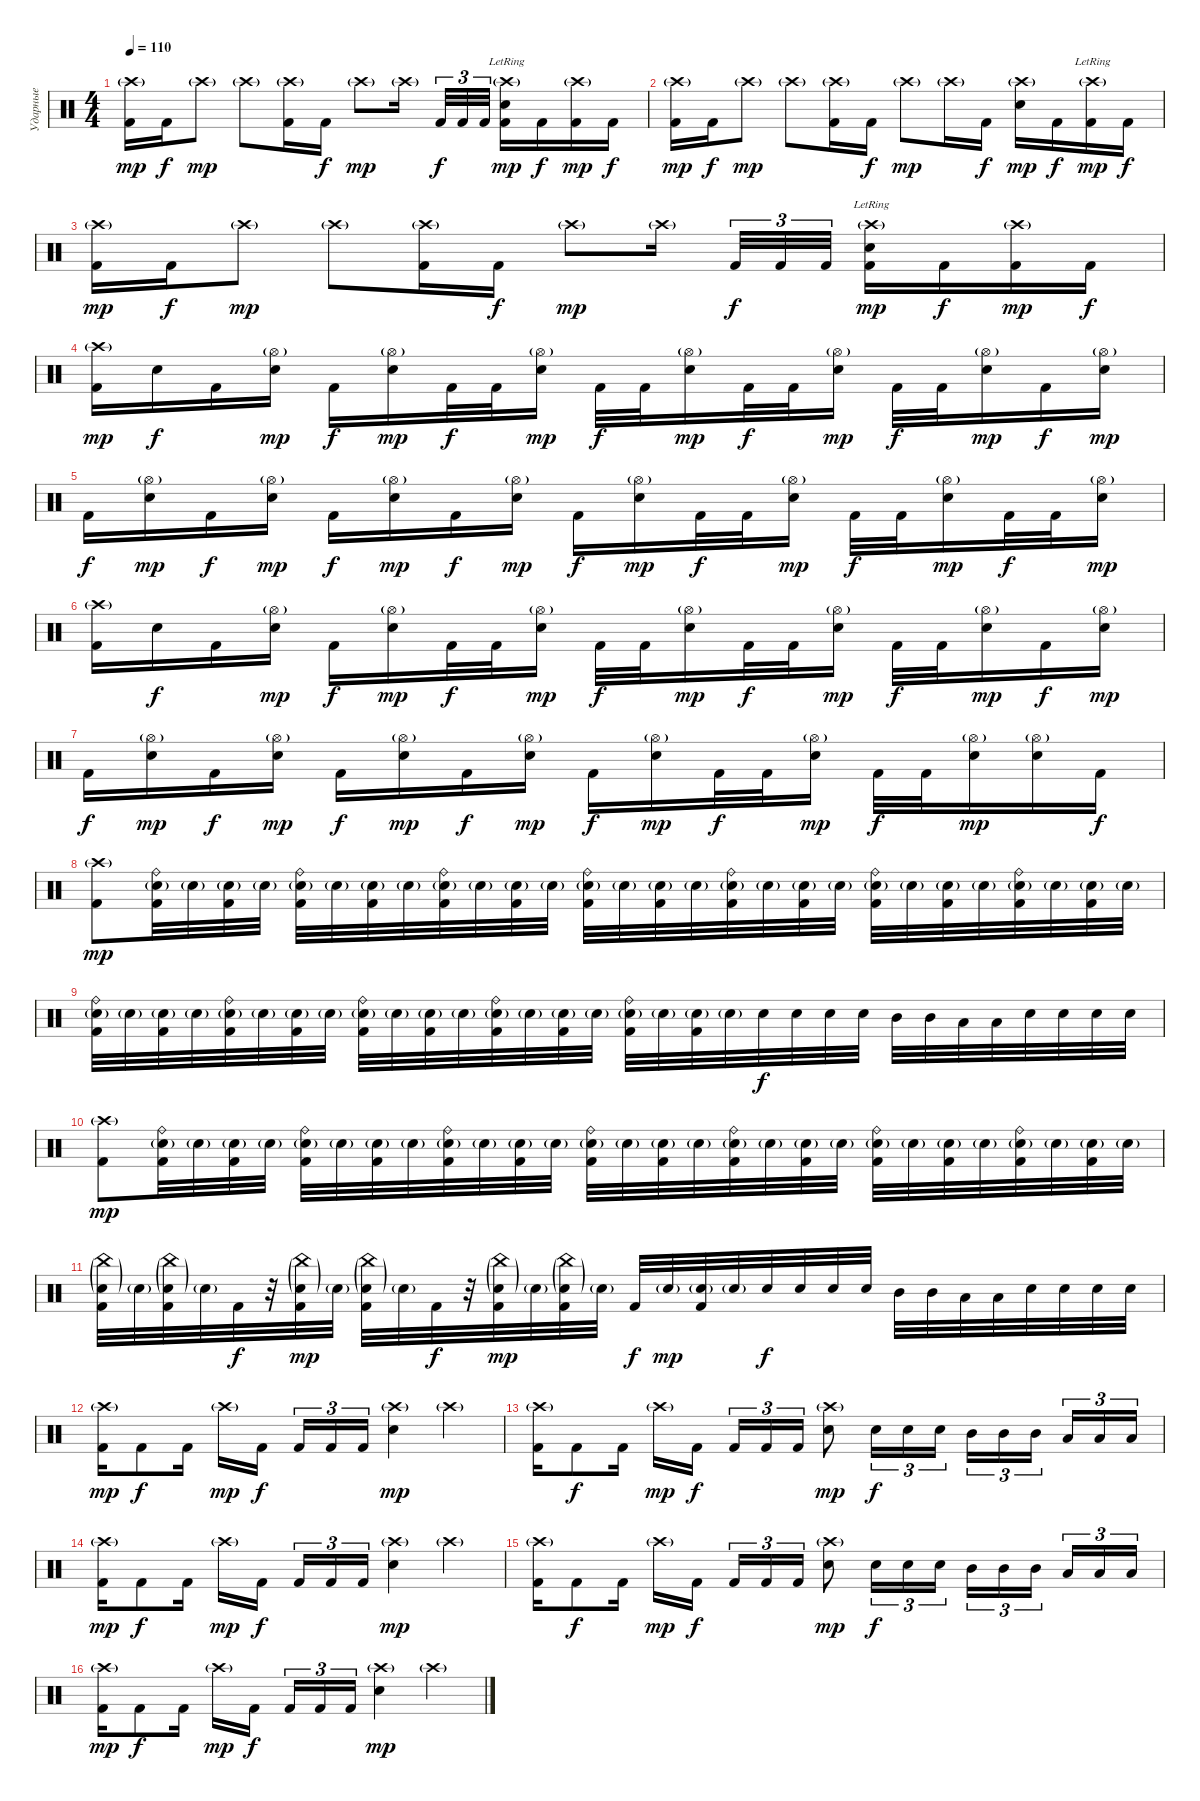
\track ("Ударные" "Ударные") {instrument percussion}
\staff {score}
\articulation defaults
\ts (4 4)
\tempo 110
\clef neutral
\ks c
("Crash high (hit)"{g} "Kick (hit) 2").16{dy mp} "Kick (hit) 2".16{dy f} "Crash high (hit)"{g}.8{dy mp} "Crash high (hit)"{g}.8 ("Crash high (hit)"{g} "Kick (hit) 2").16 "Kick (hit) 2".16{dy f} "Crash high (hit)"{g}.8{dy mp} "Crash high (hit)"{g}.16 "Kick (hit) 2".32{tu (3 2) dy f} "Kick (hit) 2".32{tu (3 2)} "Kick (hit) 2".32{tu (3 2)} ("Crash high (hit)"{g lr} "Electric Snare (hit)" "Kick (hit) 2").16{dy mp} "Kick (hit) 2".16{dy f} ("Crash high (hit)"{g} "Kick (hit) 2").16{dy mp} "Kick (hit) 2".16{dy f} |
("Crash high (hit)"{g} "Kick (hit) 2").16{dy mp} "Kick (hit) 2".16{dy f} "Crash high (hit)"{g}.8{dy mp} "Crash high (hit)"{g}.8 ("Crash high (hit)"{g} "Kick (hit) 2").16 "Kick (hit) 2".16{dy f} "Crash high (hit)"{g}.8{dy mp} "Crash high (hit)"{g}.16 "Kick (hit) 2".16{dy f} ("Crash high (hit)"{g} "Electric Snare (hit)").16{dy mp} "Kick (hit) 2".16{dy f} ("Crash high (hit)"{g lr} "Kick (hit) 2").16{dy mp} "Kick (hit) 2".16{dy f} |
("Crash high (hit)"{g} "Kick (hit) 2").16{dy mp} "Kick (hit) 2".16{dy f} "Crash high (hit)"{g}.8{dy mp} "Crash high (hit)"{g}.8 ("Crash high (hit)"{g} "Kick (hit) 2").16 "Kick (hit) 2".16{dy f} "Crash high (hit)"{g}.8{dy mp} "Crash high (hit)"{g}.16 "Kick (hit) 2".32{tu (3 2) dy f} "Kick (hit) 2".32{tu (3 2)} "Kick (hit) 2".32{tu (3 2)} ("Crash high (hit)"{g lr} "Electric Snare (hit)" "Kick (hit) 2").16{dy mp} "Kick (hit) 2".16{dy f} ("Crash high (hit)"{g} "Kick (hit) 2").16{dy mp} "Kick (hit) 2".16{dy f} |
("Crash high (hit)"{g} "Kick (hit) 2").16{dy mp} "Electric Snare (hit)".16{dy f} "Kick (hit) 2".16 ("Hi-Hat (open)"{g} "Electric Snare (hit)").16{dy mp} "Kick (hit) 2".16{dy f} ("Hi-Hat (open)"{g} "Electric Snare (hit)").16{dy mp} "Kick (hit) 2".32{dy f} "Kick (hit) 2".32 ("Hi-Hat (open)"{g} "Electric Snare (hit)").16{dy mp} "Kick (hit) 2".32{dy f} "Kick (hit) 2".32 ("Hi-Hat (open)"{g} "Electric Snare (hit)").16{dy mp} "Kick (hit) 2".32{dy f} "Kick (hit) 2".32 ("Hi-Hat (open)"{g} "Electric Snare (hit)").16{dy mp} "Kick (hit) 2".32{dy f} "Kick (hit) 2".32 ("Hi-Hat (open)"{g} "Electric Snare (hit)").16{dy mp} "Kick (hit) 2".16{dy f} ("Hi-Hat (open)"{g} "Electric Snare (hit)").16{dy mp} |
"Kick (hit) 2".16{dy f} ("Hi-Hat (open)"{g} "Electric Snare (hit)").16{dy mp} "Kick (hit) 2".16{dy f} ("Hi-Hat (open)"{g} "Electric Snare (hit)").16{dy mp} "Kick (hit) 2".16{dy f} ("Hi-Hat (open)"{g} "Electric Snare (hit)").16{dy mp} "Kick (hit) 2".16{dy f} ("Hi-Hat (open)"{g} "Electric Snare (hit)").16{dy mp} "Kick (hit) 2".16{dy f} ("Hi-Hat (open)"{g} "Electric Snare (hit)").16{dy mp} "Kick (hit) 2".32{dy f} "Kick (hit) 2".32 ("Hi-Hat (open)"{g} "Electric Snare (hit)").16{dy mp} "Kick (hit) 2".32{dy f} "Kick (hit) 2".32 ("Hi-Hat (open)"{g} "Electric Snare (hit)").16{dy mp} "Kick (hit) 2".32{dy f} "Kick (hit) 2".32 ("Hi-Hat (open)"{g} "Electric Snare (hit)").16{dy mp} |
("Crash high (hit)"{g} "Kick (hit) 2").16 "Electric Snare (hit)".16{dy f} "Kick (hit) 2".16 ("Hi-Hat (open)"{g} "Electric Snare (hit)").16{dy mp} "Kick (hit) 2".16{dy f} ("Hi-Hat (open)"{g} "Electric Snare (hit)").16{dy mp} "Kick (hit) 2".32{dy f} "Kick (hit) 2".32 ("Hi-Hat (open)"{g} "Electric Snare (hit)").16{dy mp} "Kick (hit) 2".32{dy f} "Kick (hit) 2".32 ("Hi-Hat (open)"{g} "Electric Snare (hit)").16{dy mp} "Kick (hit) 2".32{dy f} "Kick (hit) 2".32 ("Hi-Hat (open)"{g} "Electric Snare (hit)").16{dy mp} "Kick (hit) 2".32{dy f} "Kick (hit) 2".32 ("Hi-Hat (open)"{g} "Electric Snare (hit)").16{dy mp} "Kick (hit) 2".16{dy f} ("Hi-Hat (open)"{g} "Electric Snare (hit)").16{dy mp} |
"Kick (hit) 2".16{dy f} ("Hi-Hat (open)"{g} "Electric Snare (hit)").16{dy mp} "Kick (hit) 2".16{dy f} ("Hi-Hat (open)"{g} "Electric Snare (hit)").16{dy mp} "Kick (hit) 2".16{dy f} ("Hi-Hat (open)"{g} "Electric Snare (hit)").16{dy mp} "Kick (hit) 2".16{dy f} ("Hi-Hat (open)"{g} "Electric Snare (hit)").16{dy mp} "Kick (hit) 2".16{dy f} ("Hi-Hat (open)"{g} "Electric Snare (hit)").16{dy mp} "Kick (hit) 2".32{dy f} "Kick (hit) 2".32 ("Hi-Hat (open)"{g} "Electric Snare (hit)").16{dy mp} "Kick (hit) 2".32{dy f} "Kick (hit) 2".32 ("Hi-Hat (open)"{g} "Electric Snare (hit)").16{dy mp} ("Hi-Hat (open)"{g} "Electric Snare (hit)").16 "Kick (hit) 2".16{dy f} |
("Crash high (hit)"{g} "Kick (hit) 2").8{dy mp} ("Ride (bell)" "Electric Snare (hit)"{g} "Kick (hit) 2").32 "Electric Snare (hit)"{g}.32 ("Electric Snare (hit)"{g} "Kick (hit) 2").32 "Electric Snare (hit)"{g}.32 ("Ride (bell)" "Electric Snare (hit)"{g} "Kick (hit) 2").32 "Electric Snare (hit)"{g}.32 ("Electric Snare (hit)"{g} "Kick (hit) 2").32 "Electric Snare (hit)"{g}.32 ("Ride (bell)" "Electric Snare (hit)"{g} "Kick (hit) 2").32 "Electric Snare (hit)"{g}.32 ("Electric Snare (hit)"{g} "Kick (hit) 2").32 "Electric Snare (hit)"{g}.32 ("Ride (bell)" "Electric Snare (hit)"{g} "Kick (hit) 2").32 "Electric Snare (hit)"{g}.32 ("Electric Snare (hit)"{g} "Kick (hit) 2").32 "Electric Snare (hit)"{g}.32 ("Ride (bell)" "Electric Snare (hit)"{g} "Kick (hit) 2").32 "Electric Snare (hit)"{g}.32 ("Electric Snare (hit)"{g} "Kick (hit) 2").32 "Electric Snare (hit)"{g}.32 ("Ride (bell)" "Electric Snare (hit)"{g} "Kick (hit) 2").32 "Electric Snare (hit)"{g}.32 ("Electric Snare (hit)"{g} "Kick (hit) 2").32 "Electric Snare (hit)"{g}.32 ("Ride (bell)" "Electric Snare (hit)"{g} "Kick (hit) 2").32 "Electric Snare (hit)"{g}.32 ("Electric Snare (hit)"{g} "Kick (hit) 2").32 "Electric Snare (hit)"{g}.32 |
("Ride (bell)" "Electric Snare (hit)"{g} "Kick (hit) 2").32 "Electric Snare (hit)"{g}.32 ("Electric Snare (hit)"{g} "Kick (hit) 2").32 "Electric Snare (hit)"{g}.32 ("Ride (bell)" "Electric Snare (hit)"{g} "Kick (hit) 2").32 "Electric Snare (hit)"{g}.32 ("Electric Snare (hit)"{g} "Kick (hit) 2").32 "Electric Snare (hit)"{g}.32 ("Ride (bell)" "Electric Snare (hit)"{g} "Kick (hit) 2").32 "Electric Snare (hit)"{g}.32 ("Electric Snare (hit)"{g} "Kick (hit) 2").32 "Electric Snare (hit)"{g}.32 ("Ride (bell)" "Electric Snare (hit)"{g} "Kick (hit) 2").32 "Electric Snare (hit)"{g}.32 ("Electric Snare (hit)"{g} "Kick (hit) 2").32 "Electric Snare (hit)"{g}.32 ("Ride (bell)" "Electric Snare (hit)"{g} "Kick (hit) 2").32 "Electric Snare (hit)"{g}.32 ("Electric Snare (hit)"{g} "Kick (hit) 2").32 "Electric Snare (hit)"{g}.32 "Electric Snare (hit)".32{dy f} "Electric Snare (hit)".32 "Electric Snare (hit)".32 "Electric Snare (hit)".32 "Mid Tom (hit)".32 "Mid Tom (hit)".32 "Low Tom (hit)".32 "Low Tom (hit)".32 "Electric Snare (hit)".32 "Electric Snare (hit)".32 "Electric Snare (hit)".32 "Electric Snare (hit)".32 |
("Crash high (hit)"{g} "Kick (hit) 2").8{dy mp} ("Ride (bell)" "Electric Snare (hit)"{g} "Kick (hit) 2").32 "Electric Snare (hit)"{g}.32 ("Electric Snare (hit)"{g} "Kick (hit) 2").32 "Electric Snare (hit)"{g}.32 ("Ride (bell)" "Electric Snare (hit)"{g} "Kick (hit) 2").32 "Electric Snare (hit)"{g}.32 ("Electric Snare (hit)"{g} "Kick (hit) 2").32 "Electric Snare (hit)"{g}.32 ("Ride (bell)" "Electric Snare (hit)"{g} "Kick (hit) 2").32 "Electric Snare (hit)"{g}.32 ("Electric Snare (hit)"{g} "Kick (hit) 2").32 "Electric Snare (hit)"{g}.32 ("Ride (bell)" "Electric Snare (hit)"{g} "Kick (hit) 2").32 "Electric Snare (hit)"{g}.32 ("Electric Snare (hit)"{g} "Kick (hit) 2").32 "Electric Snare (hit)"{g}.32 ("Ride (bell)" "Electric Snare (hit)"{g} "Kick (hit) 2").32 "Electric Snare (hit)"{g}.32 ("Electric Snare (hit)"{g} "Kick (hit) 2").32 "Electric Snare (hit)"{g}.32 ("Ride (bell)" "Electric Snare (hit)"{g} "Kick (hit) 2").32 "Electric Snare (hit)"{g}.32 ("Electric Snare (hit)"{g} "Kick (hit) 2").32 "Electric Snare (hit)"{g}.32 ("Ride (bell)" "Electric Snare (hit)"{g} "Kick (hit) 2").32 "Electric Snare (hit)"{g}.32 ("Electric Snare (hit)"{g} "Kick (hit) 2").32 "Electric Snare (hit)"{g}.32 |
("China (hit)"{g} "Electric Snare (hit)"{g} "Kick (hit) 2").32 "Electric Snare (hit)"{g}.32 ("China (hit)"{g} "Electric Snare (hit)"{g} "Kick (hit) 2").32 "Electric Snare (hit)"{g}.32 "Kick (hit) 2".32{dy f} r.32 ("China (hit)"{g} "Electric Snare (hit)"{g} "Kick (hit) 2").32{dy mp} "Electric Snare (hit)"{g}.32 ("China (hit)"{g} "Electric Snare (hit)"{g} "Kick (hit) 2").32 "Electric Snare (hit)"{g}.32 "Kick (hit) 2".32{dy f} r.32 ("China (hit)"{g} "Electric Snare (hit)"{g} "Kick (hit) 2").32{dy mp} "Electric Snare (hit)"{g}.32 ("China (hit)"{g} "Electric Snare (hit)"{g} "Kick (hit) 2").32 "Electric Snare (hit)"{g}.32 "Kick (hit) 2".32{dy f} "Electric Snare (hit)"{g}.32{dy mp} ("Electric Snare (hit)"{g} "Kick (hit) 2").32 "Electric Snare (hit)"{g}.32 "Electric Snare (hit)".32{dy f} "Electric Snare (hit)".32 "Electric Snare (hit)".32 "Electric Snare (hit)".32 "Mid Tom (hit)".32 "Mid Tom (hit)".32 "Low Tom (hit)".32 "Low Tom (hit)".32 "Electric Snare (hit)".32 "Electric Snare (hit)".32 "Electric Snare (hit)".32 "Electric Snare (hit)".32 |
("Crash high (hit)"{g} "Kick (hit) 2").16{dy mp} "Kick (hit) 2".8{dy f} "Kick (hit) 2".16 "Crash high (hit)"{g}.16{dy mp} "Kick (hit) 2".16{dy f} "Kick (hit) 2".16{tu (3 2)} "Kick (hit) 2".16{tu (3 2)} "Kick (hit) 2".16{tu (3 2)} ("Crash high (hit)"{g} "Electric Snare (hit)").4{dy mp} "Crash high (hit)"{g}.4 |
("Crash high (hit)"{g} "Kick (hit) 2").16 "Kick (hit) 2".8{dy f} "Kick (hit) 2".16 "Crash high (hit)"{g}.16{dy mp} "Kick (hit) 2".16{dy f} "Kick (hit) 2".16{tu (3 2)} "Kick (hit) 2".16{tu (3 2)} "Kick (hit) 2".16{tu (3 2)} ("Crash high (hit)"{g} "Electric Snare (hit)").8{dy mp} "Electric Snare (hit)".16{tu (3 2) dy f} "Electric Snare (hit)".16{tu (3 2)} "Electric Snare (hit)".16{tu (3 2)} "Mid Tom (hit)".16{tu (3 2)} "Mid Tom (hit)".16{tu (3 2)} "Mid Tom (hit)".16{tu (3 2)} "Low Tom (hit)".16{tu (3 2)} "Low Tom (hit)".16{tu (3 2)} "Low Tom (hit)".16{tu (3 2)} |
("Crash high (hit)"{g} "Kick (hit) 2").16{dy mp} "Kick (hit) 2".8{dy f} "Kick (hit) 2".16 "Crash high (hit)"{g}.16{dy mp} "Kick (hit) 2".16{dy f} "Kick (hit) 2".16{tu (3 2)} "Kick (hit) 2".16{tu (3 2)} "Kick (hit) 2".16{tu (3 2)} ("Crash high (hit)"{g} "Electric Snare (hit)").4{dy mp} "Crash high (hit)"{g}.4 |
("Crash high (hit)"{g} "Kick (hit) 2").16 "Kick (hit) 2".8{dy f} "Kick (hit) 2".16 "Crash high (hit)"{g}.16{dy mp} "Kick (hit) 2".16{dy f} "Kick (hit) 2".16{tu (3 2)} "Kick (hit) 2".16{tu (3 2)} "Kick (hit) 2".16{tu (3 2)} ("Crash high (hit)"{g} "Electric Snare (hit)").8{dy mp} "Electric Snare (hit)".16{tu (3 2) dy f} "Electric Snare (hit)".16{tu (3 2)} "Electric Snare (hit)".16{tu (3 2)} "Mid Tom (hit)".16{tu (3 2)} "Mid Tom (hit)".16{tu (3 2)} "Mid Tom (hit)".16{tu (3 2)} "Low Tom (hit)".16{tu (3 2)} "Low Tom (hit)".16{tu (3 2)} "Low Tom (hit)".16{tu (3 2)} |
("Crash high (hit)"{g} "Kick (hit) 2").16{dy mp} "Kick (hit) 2".8{dy f} "Kick (hit) 2".16 "Crash high (hit)"{g}.16{dy mp} "Kick (hit) 2".16{dy f} "Kick (hit) 2".16{tu (3 2)} "Kick (hit) 2".16{tu (3 2)} "Kick (hit) 2".16{tu (3 2)} ("Crash high (hit)"{g} "Electric Snare (hit)").4{dy mp} "Crash high (hit)"{g}.4
